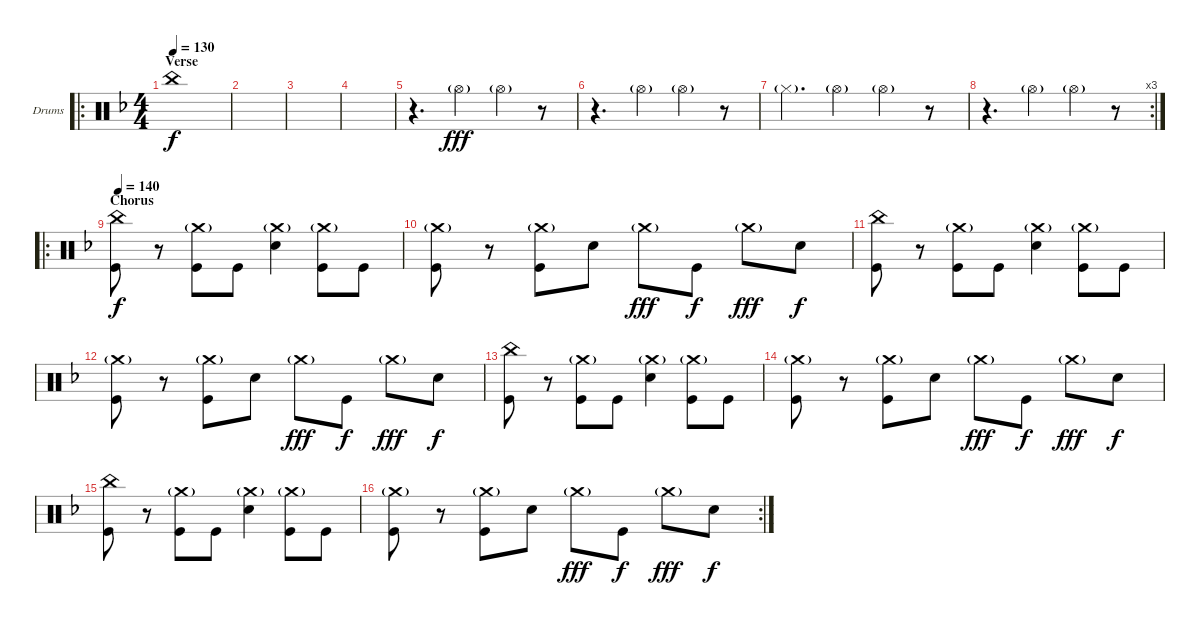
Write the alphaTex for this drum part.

\defaultSystemsLayout 4
\bracketExtendMode groupsimilarinstruments
\firstSystemTrackNameOrientation horizontal
\otherSystemsTrackNameOrientation horizontal
\track ("Mark" "Drums") {instrument percussion}
\staff {score}
\articulation defaults
\ro
\ts (4 4)
\section ("" "Verse")
\tempo 130
\clef neutral
\scale
0.377778
\ks f "China (hit)".1{dy f}
|
\scale
0.333333 |
\scale
0.333333 |
\scale
0.333333 |
\scale
0.333333 r.4{d} "Hi-Hat (open)"{g}.4{dy fff} "Hi-Hat (open)"{g}.4 r.8 |
\scale
0.333333 r.4{d} "Hi-Hat (open)"{g}.4 "Hi-Hat (open)"{g}.4 r.8 |
\scale
0.333333 "Hi-Hat (closed)"{g}.4{d} "Hi-Hat (open)"{g}.4 "Hi-Hat (open)"{g}.4 r.8 |
\rc 3
\scale
0.333333 r.4{d} "Hi-Hat (open)"{g}.4 "Hi-Hat (open)"{g}.4 r.8 |
\ro
\section ("" "Chorus")
\tempo 140
\scale
0.365591 ("China (hit)" "Kick (hit)").8{dy f} r.8 ("Crash medium (hit)"{g} "Kick (hit)").8 "Kick (hit)".8 ("Crash medium (hit)"{g} "Snare (hit) 2").4 ("Crash medium (hit)"{g} "Kick (hit)").8 "Kick (hit)".8 |
\scale
0.301075 ("Crash medium (hit)"{g} "Kick (hit)").8 r.8 ("Crash medium (hit)"{g} "Kick (hit)").8 "Snare (hit) 2".8 "Crash medium (hit)"{g}.8{dy fff} "Kick (hit)".8{dy f} "Crash medium (hit)"{g}.8{dy fff} "Snare (hit) 2".8{dy f} |
\scale
0.333333 ("China (hit)" "Kick (hit)").8 r.8 ("Crash medium (hit)"{g} "Kick (hit)").8 "Kick (hit)".8 ("Crash medium (hit)"{g} "Snare (hit) 2").4 ("Crash medium (hit)"{g} "Kick (hit)").8 "Kick (hit)".8 |
\scale
0.333333 ("Crash medium (hit)"{g} "Kick (hit)").8 r.8 ("Crash medium (hit)"{g} "Kick (hit)").8 "Snare (hit) 2".8 "Crash medium (hit)"{g}.8{dy fff} "Kick (hit)".8{dy f} "Crash medium (hit)"{g}.8{dy fff} "Snare (hit) 2".8{dy f} |
\scale
0.333333 ("China (hit)" "Kick (hit)").8 r.8 ("Crash medium (hit)"{g} "Kick (hit)").8 "Kick (hit)".8 ("Crash medium (hit)"{g} "Snare (hit) 2").4 ("Crash medium (hit)"{g} "Kick (hit)").8 "Kick (hit)".8 |
\scale
0.321839 ("Crash medium (hit)"{g} "Kick (hit)").8 r.8 ("Crash medium (hit)"{g} "Kick (hit)").8 "Snare (hit) 2".8 "Crash medium (hit)"{g}.8{dy fff} "Kick (hit)".8{dy f} "Crash medium (hit)"{g}.8{dy fff} "Snare (hit) 2".8{dy f} |
\scale
0.321839 ("China (hit)" "Kick (hit)").8 r.8 ("Crash medium (hit)"{g} "Kick (hit)").8 "Kick (hit)".8 ("Crash medium (hit)"{g} "Snare (hit) 2").4 ("Crash medium (hit)"{g} "Kick (hit)").8 "Kick (hit)".8 |
\rc 2
\scale
0.356322 ("Crash medium (hit)"{g} "Kick (hit)").8 r.8 ("Crash medium (hit)"{g} "Kick (hit)").8 "Snare (hit) 2".8 "Crash medium (hit)"{g}.8{dy fff} "Kick (hit)".8{dy f} "Crash medium (hit)"{g}.8{dy fff} "Snare (hit) 2".8{dy f}
